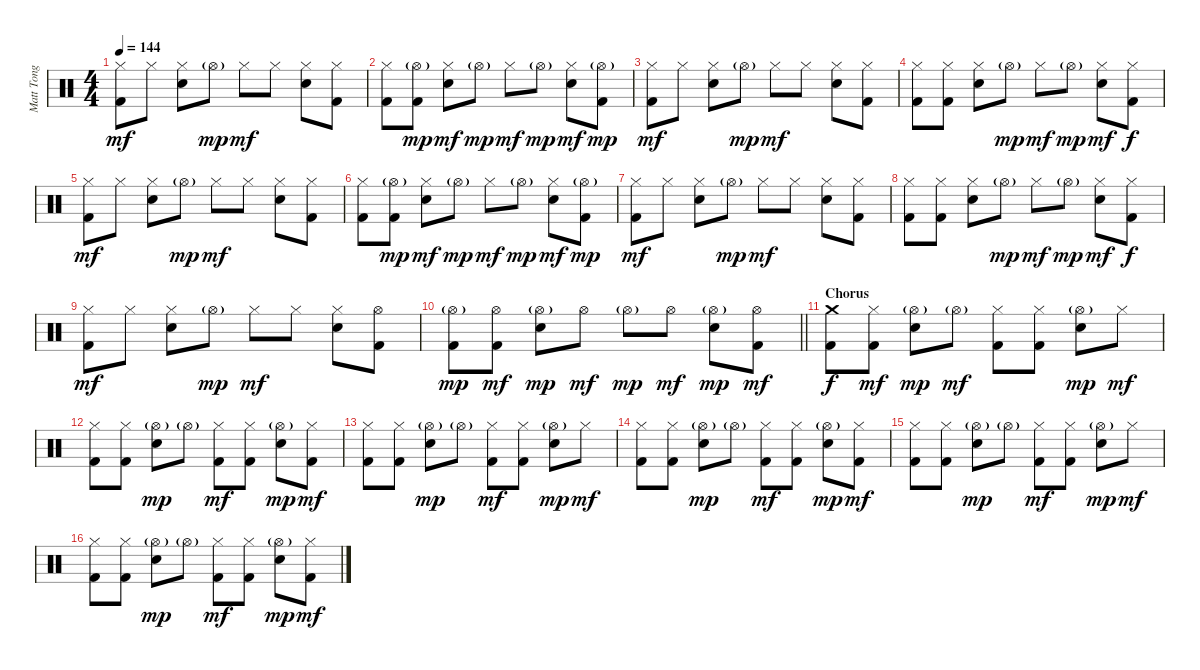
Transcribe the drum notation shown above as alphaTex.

\track ("Matt Tong" "Matt Tong") {instrument percussion}
\staff {score}
\articulation defaults
\ts (4 4)
\tempo 144
\clef neutral
\ks c
("Hi-Hat (closed)" "Kick (hit) 2").8{dy mf} "Hi-Hat (closed)".8 ("Hi-Hat (closed)" "Electric Snare (hit)").8 "Hi-Hat (open)"{g}.8{dy mp} "Hi-Hat (closed)".8{dy mf} "Hi-Hat (closed)".8 ("Hi-Hat (closed)" "Electric Snare (hit)").8 ("Hi-Hat (closed)" "Kick (hit) 2").8 |
("Hi-Hat (closed)" "Kick (hit) 2").8 ("Hi-Hat (open)"{g} "Kick (hit) 2").8{dy mp} ("Hi-Hat (closed)" "Electric Snare (hit)").8{dy mf} "Hi-Hat (open)"{g}.8{dy mp} "Hi-Hat (closed)".8{dy mf} "Hi-Hat (open)"{g}.8{dy mp} ("Hi-Hat (closed)" "Electric Snare (hit)").8{dy mf} ("Hi-Hat (open)"{g} "Kick (hit) 2").8{dy mp} |
("Hi-Hat (closed)" "Kick (hit) 2").8{dy mf} "Hi-Hat (closed)".8 ("Hi-Hat (closed)" "Electric Snare (hit)").8 "Hi-Hat (open)"{g}.8{dy mp} "Hi-Hat (closed)".8{dy mf} "Hi-Hat (closed)".8 ("Hi-Hat (closed)" "Electric Snare (hit)").8 ("Hi-Hat (closed)" "Kick (hit) 2").8 |
("Hi-Hat (closed)" "Kick (hit) 2").8 ("Hi-Hat (closed)" "Kick (hit) 2").8 ("Hi-Hat (closed)" "Electric Snare (hit)").8 "Hi-Hat (open)"{g}.8{dy mp} "Hi-Hat (closed)".8{dy mf} "Hi-Hat (open)"{g}.8{dy mp} ("Hi-Hat (closed)" "Electric Snare (hit)").8{dy mf} ("Hi-Hat (closed)" "Kick (hit) 2").8{dy f} |
("Hi-Hat (closed)" "Kick (hit) 2").8{dy mf} "Hi-Hat (closed)".8 ("Hi-Hat (closed)" "Electric Snare (hit)").8 "Hi-Hat (open)"{g}.8{dy mp} "Hi-Hat (closed)".8{dy mf} "Hi-Hat (closed)".8 ("Hi-Hat (closed)" "Electric Snare (hit)").8 ("Hi-Hat (closed)" "Kick (hit) 2").8 |
("Hi-Hat (closed)" "Kick (hit) 2").8 ("Hi-Hat (open)"{g} "Kick (hit) 2").8{dy mp} ("Hi-Hat (closed)" "Electric Snare (hit)").8{dy mf} "Hi-Hat (open)"{g}.8{dy mp} "Hi-Hat (closed)".8{dy mf} "Hi-Hat (open)"{g}.8{dy mp} ("Hi-Hat (closed)" "Electric Snare (hit)").8{dy mf} ("Hi-Hat (open)"{g} "Kick (hit) 2").8{dy mp} |
("Hi-Hat (closed)" "Kick (hit) 2").8{dy mf} "Hi-Hat (closed)".8 ("Hi-Hat (closed)" "Electric Snare (hit)").8 "Hi-Hat (open)"{g}.8{dy mp} "Hi-Hat (closed)".8{dy mf} "Hi-Hat (closed)".8 ("Hi-Hat (closed)" "Electric Snare (hit)").8 ("Hi-Hat (closed)" "Kick (hit) 2").8 |
("Hi-Hat (closed)" "Kick (hit) 2").8 ("Hi-Hat (closed)" "Kick (hit) 2").8 ("Hi-Hat (closed)" "Electric Snare (hit)").8 "Hi-Hat (open)"{g}.8{dy mp} "Hi-Hat (closed)".8{dy mf} "Hi-Hat (open)"{g}.8{dy mp} ("Hi-Hat (closed)" "Electric Snare (hit)").8{dy mf} ("Hi-Hat (closed)" "Kick (hit) 2").8{dy f} |
("Hi-Hat (closed)" "Kick (hit) 2").8{dy mf} "Hi-Hat (closed)".8 ("Hi-Hat (closed)" "Electric Snare (hit)").8 "Hi-Hat (open)"{g}.8{dy mp} "Hi-Hat (closed)".8{dy mf} "Hi-Hat (closed)".8 ("Hi-Hat (closed)" "Electric Snare (hit)").8 ("Hi-Hat (open)" "Kick (hit) 2").8 |
\barLineRight lightlight
("Hi-Hat (open)"{g} "Kick (hit) 2").8{dy mp} ("Hi-Hat (open)" "Kick (hit) 2").8{dy mf} ("Hi-Hat (open)"{g} "Electric Snare (hit)").8{dy mp} "Hi-Hat (open)".8{dy mf} "Hi-Hat (open)"{g}.8{dy mp} "Hi-Hat (open)".8{dy mf} ("Hi-Hat (open)"{g} "Electric Snare (hit)").8{dy mp} ("Hi-Hat (open)" "Kick (hit) 2").8{dy mf} |
\section ("" "Chorus")
("Crash medium (hit)" "Kick (hit) 2").8{dy f} ("Hi-Hat (closed)" "Kick (hit) 2").8{dy mf} ("Hi-Hat (open)"{g} "Electric Snare (hit)").8{dy mp} "Hi-Hat (open)"{g}.8{dy mf} ("Hi-Hat (closed)" "Kick (hit) 2").8 ("Hi-Hat (closed)" "Kick (hit) 2").8 ("Hi-Hat (open)"{g} "Electric Snare (hit)").8{dy mp} "Hi-Hat (closed)".8{dy mf} |
("Hi-Hat (closed)" "Kick (hit) 2").8 ("Hi-Hat (closed)" "Kick (hit) 2").8 ("Hi-Hat (open)"{g} "Electric Snare (hit)").8{dy mp} "Hi-Hat (open)"{g}.8 ("Hi-Hat (closed)" "Kick (hit) 2").8{dy mf} ("Hi-Hat (closed)" "Kick (hit) 2").8 ("Hi-Hat (open)"{g} "Electric Snare (hit)").8{dy mp} ("Hi-Hat (closed)" "Kick (hit) 2").8{dy mf} |
("Hi-Hat (closed)" "Kick (hit) 2").8 ("Hi-Hat (closed)" "Kick (hit) 2").8 ("Hi-Hat (open)"{g} "Electric Snare (hit)").8{dy mp} "Hi-Hat (open)"{g}.8 ("Hi-Hat (closed)" "Kick (hit) 2").8{dy mf} ("Hi-Hat (closed)" "Kick (hit) 2").8 ("Hi-Hat (open)"{g} "Electric Snare (hit)").8{dy mp} "Hi-Hat (closed)".8{dy mf} |
("Hi-Hat (closed)" "Kick (hit) 2").8 ("Hi-Hat (closed)" "Kick (hit) 2").8 ("Hi-Hat (open)"{g} "Electric Snare (hit)").8{dy mp} "Hi-Hat (open)"{g}.8 ("Hi-Hat (closed)" "Kick (hit) 2").8{dy mf} ("Hi-Hat (closed)" "Kick (hit) 2").8 ("Hi-Hat (open)"{g} "Electric Snare (hit)").8{dy mp} ("Hi-Hat (closed)" "Kick (hit) 2").8{dy mf} |
("Hi-Hat (closed)" "Kick (hit) 2").8 ("Hi-Hat (closed)" "Kick (hit) 2").8 ("Hi-Hat (open)"{g} "Electric Snare (hit)").8{dy mp} "Hi-Hat (open)"{g}.8 ("Hi-Hat (closed)" "Kick (hit) 2").8{dy mf} ("Hi-Hat (closed)" "Kick (hit) 2").8 ("Hi-Hat (open)"{g} "Electric Snare (hit)").8{dy mp} "Hi-Hat (closed)".8{dy mf} |
("Hi-Hat (closed)" "Kick (hit) 2").8 ("Hi-Hat (closed)" "Kick (hit) 2").8 ("Hi-Hat (open)"{g} "Electric Snare (hit)").8{dy mp} "Hi-Hat (open)"{g}.8 ("Hi-Hat (closed)" "Kick (hit) 2").8{dy mf} ("Hi-Hat (closed)" "Kick (hit) 2").8 ("Hi-Hat (open)"{g} "Electric Snare (hit)").8{dy mp} ("Hi-Hat (closed)" "Kick (hit) 2").8{dy mf}
